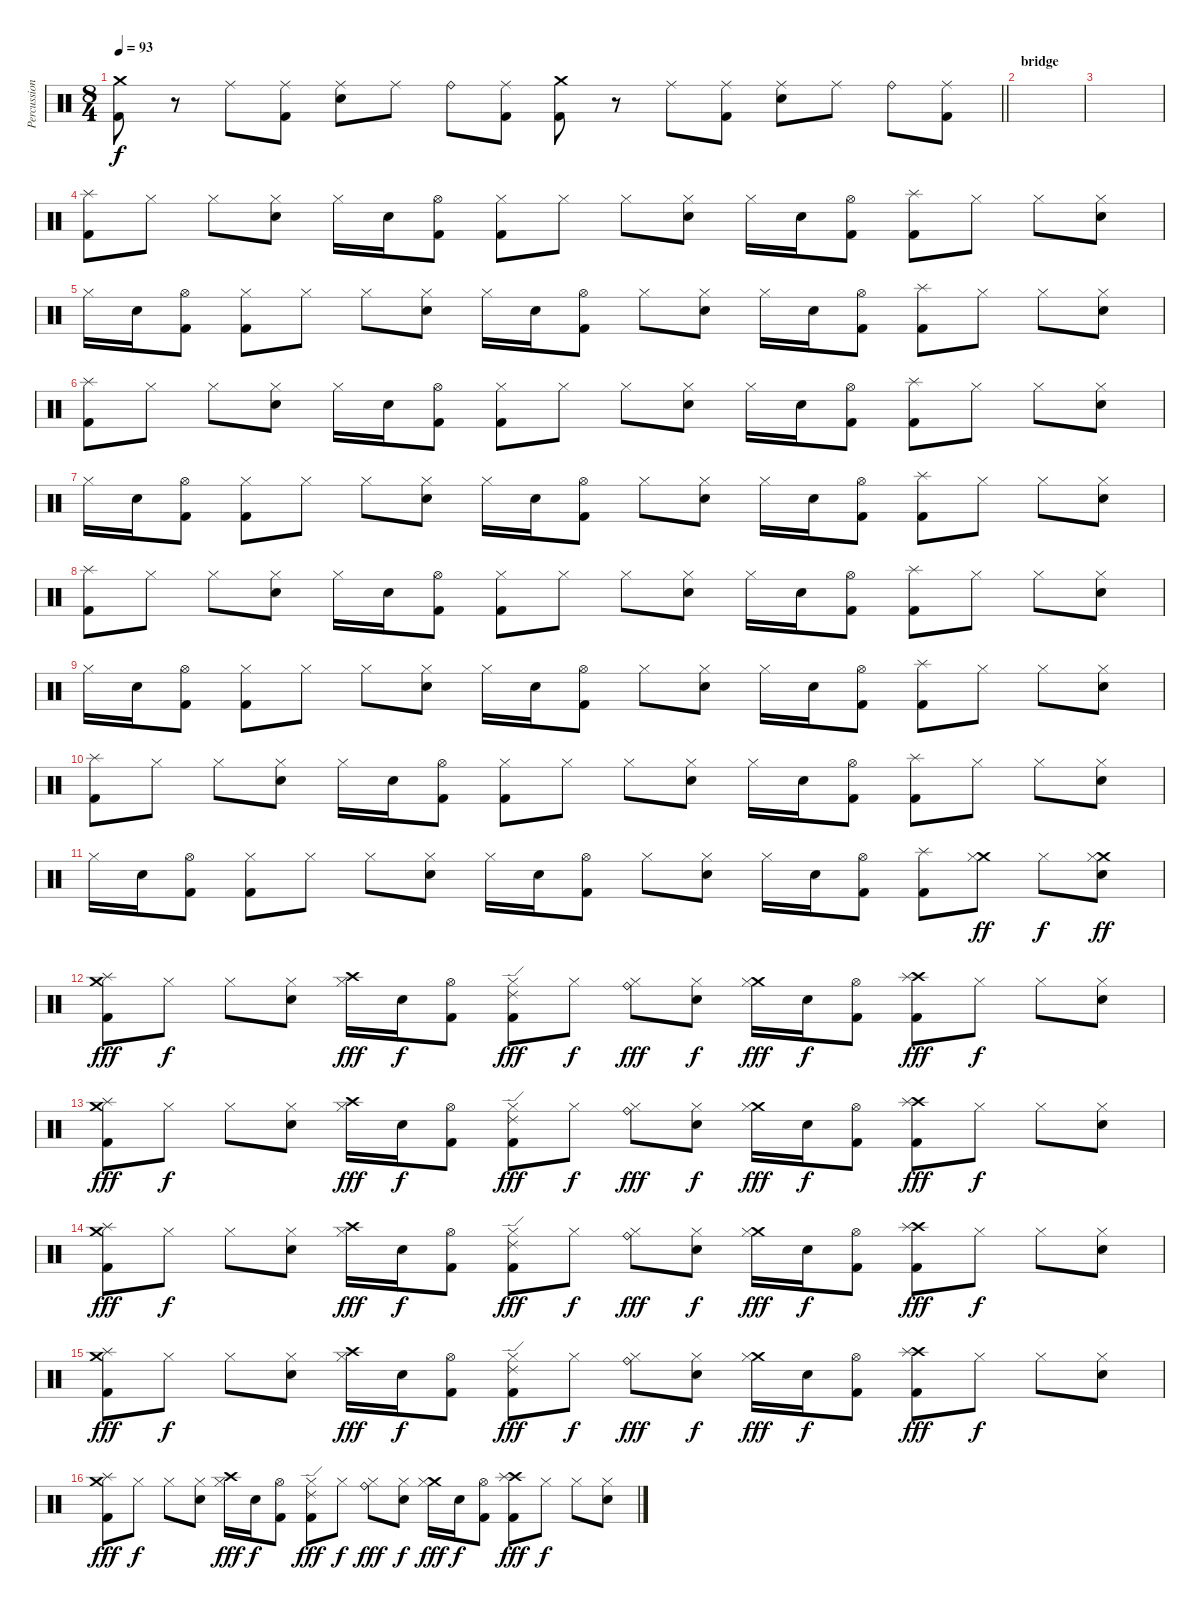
\track ("Percussioni" "Percussion") {instrument percussion}
\staff {score}
\articulation defaults
\ts (8 4)
\tempo 93
\clef neutral
\barLineRight lightlight
\ks c
("Kick (hit) 2" "Crash medium (hit)").8{dy f} r.8 "Ride (middle)".8 ("Kick (hit) 2" "Ride (middle)").8 ("Electric Snare (hit)" "Ride (middle)").8 "Ride (middle)".8 "Ride (bell)".8 ("Kick (hit) 2" "Ride (middle)").8 ("Kick (hit) 2" "Crash medium (hit)").8 r.8 "Ride (middle)".8 ("Kick (hit) 2" "Ride (middle)").8 ("Electric Snare (hit)" "Ride (middle)").8 "Ride (middle)".8 "Ride (bell)".8 ("Kick (hit) 2" "Ride (middle)").8 |
\section ("" "bridge")
|
|
("Splash (hit)" "Kick (hit) 2").8 "Hi-Hat (closed)".8 "Hi-Hat (closed)".8 ("Electric Snare (hit)" "Hi-Hat (closed)").8 "Hi-Hat (closed)".16 "Electric Snare (hit)".16 ("Kick (hit) 2" "Hi-Hat (open)").8 ("Kick (hit) 2" "Hi-Hat (closed)").8 "Hi-Hat (closed)".8 "Hi-Hat (closed)".8 ("Electric Snare (hit)" "Hi-Hat (closed)").8 "Hi-Hat (closed)".16 "Electric Snare (hit)".16 ("Kick (hit) 2" "Hi-Hat (open)").8 ("Splash (hit)" "Kick (hit) 2").8 "Hi-Hat (closed)".8 "Hi-Hat (closed)".8 ("Electric Snare (hit)" "Hi-Hat (closed)").8 |
"Hi-Hat (closed)".16 "Electric Snare (hit)".16 ("Kick (hit) 2" "Hi-Hat (open)").8 ("Kick (hit) 2" "Hi-Hat (closed)").8 "Hi-Hat (closed)".8 "Hi-Hat (closed)".8 ("Electric Snare (hit)" "Hi-Hat (closed)").8 "Hi-Hat (closed)".16 "Electric Snare (hit)".16 ("Kick (hit) 2" "Hi-Hat (open)").8 "Hi-Hat (closed)".8 ("Electric Snare (hit)" "Hi-Hat (closed)").8 "Hi-Hat (closed)".16 "Electric Snare (hit)".16 ("Kick (hit) 2" "Hi-Hat (open)").8 ("Splash (hit)" "Kick (hit) 2").8 "Hi-Hat (closed)".8 "Hi-Hat (closed)".8 ("Electric Snare (hit)" "Hi-Hat (closed)").8 |
("Splash (hit)" "Kick (hit) 2").8 "Hi-Hat (closed)".8 "Hi-Hat (closed)".8 ("Electric Snare (hit)" "Hi-Hat (closed)").8 "Hi-Hat (closed)".16 "Electric Snare (hit)".16 ("Kick (hit) 2" "Hi-Hat (open)").8 ("Kick (hit) 2" "Hi-Hat (closed)").8 "Hi-Hat (closed)".8 "Hi-Hat (closed)".8 ("Electric Snare (hit)" "Hi-Hat (closed)").8 "Hi-Hat (closed)".16 "Electric Snare (hit)".16 ("Kick (hit) 2" "Hi-Hat (open)").8 ("Splash (hit)" "Kick (hit) 2").8 "Hi-Hat (closed)".8 "Hi-Hat (closed)".8 ("Electric Snare (hit)" "Hi-Hat (closed)").8 |
"Hi-Hat (closed)".16 "Electric Snare (hit)".16 ("Kick (hit) 2" "Hi-Hat (open)").8 ("Kick (hit) 2" "Hi-Hat (closed)").8 "Hi-Hat (closed)".8 "Hi-Hat (closed)".8 ("Electric Snare (hit)" "Hi-Hat (closed)").8 "Hi-Hat (closed)".16 "Electric Snare (hit)".16 ("Kick (hit) 2" "Hi-Hat (open)").8 "Hi-Hat (closed)".8 ("Electric Snare (hit)" "Hi-Hat (closed)").8 "Hi-Hat (closed)".16 "Electric Snare (hit)".16 ("Kick (hit) 2" "Hi-Hat (open)").8 ("Splash (hit)" "Kick (hit) 2").8 "Hi-Hat (closed)".8 "Hi-Hat (closed)".8 ("Electric Snare (hit)" "Hi-Hat (closed)").8 |
("Splash (hit)" "Kick (hit) 2").8 "Hi-Hat (closed)".8 "Hi-Hat (closed)".8 ("Electric Snare (hit)" "Hi-Hat (closed)").8 "Hi-Hat (closed)".16 "Electric Snare (hit)".16 ("Kick (hit) 2" "Hi-Hat (open)").8 ("Kick (hit) 2" "Hi-Hat (closed)").8 "Hi-Hat (closed)".8 "Hi-Hat (closed)".8 ("Electric Snare (hit)" "Hi-Hat (closed)").8 "Hi-Hat (closed)".16 "Electric Snare (hit)".16 ("Kick (hit) 2" "Hi-Hat (open)").8 ("Splash (hit)" "Kick (hit) 2").8 "Hi-Hat (closed)".8 "Hi-Hat (closed)".8 ("Electric Snare (hit)" "Hi-Hat (closed)").8 |
"Hi-Hat (closed)".16 "Electric Snare (hit)".16 ("Kick (hit) 2" "Hi-Hat (open)").8 ("Kick (hit) 2" "Hi-Hat (closed)").8 "Hi-Hat (closed)".8 "Hi-Hat (closed)".8 ("Electric Snare (hit)" "Hi-Hat (closed)").8 "Hi-Hat (closed)".16 "Electric Snare (hit)".16 ("Kick (hit) 2" "Hi-Hat (open)").8 "Hi-Hat (closed)".8 ("Electric Snare (hit)" "Hi-Hat (closed)").8 "Hi-Hat (closed)".16 "Electric Snare (hit)".16 ("Kick (hit) 2" "Hi-Hat (open)").8 ("Splash (hit)" "Kick (hit) 2").8 "Hi-Hat (closed)".8 "Hi-Hat (closed)".8 ("Electric Snare (hit)" "Hi-Hat (closed)").8 |
("Splash (hit)" "Kick (hit) 2").8 "Hi-Hat (closed)".8 "Hi-Hat (closed)".8 ("Electric Snare (hit)" "Hi-Hat (closed)").8 "Hi-Hat (closed)".16 "Electric Snare (hit)".16 ("Kick (hit) 2" "Hi-Hat (open)").8 ("Kick (hit) 2" "Hi-Hat (closed)").8 "Hi-Hat (closed)".8 "Hi-Hat (closed)".8 ("Electric Snare (hit)" "Hi-Hat (closed)").8 "Hi-Hat (closed)".16 "Electric Snare (hit)".16 ("Kick (hit) 2" "Hi-Hat (open)").8 ("Splash (hit)" "Kick (hit) 2").8 "Hi-Hat (closed)".8 "Hi-Hat (closed)".8 ("Electric Snare (hit)" "Hi-Hat (closed)").8 |
"Hi-Hat (closed)".16 "Electric Snare (hit)".16 ("Kick (hit) 2" "Hi-Hat (open)").8 ("Kick (hit) 2" "Hi-Hat (closed)").8 "Hi-Hat (closed)".8 "Hi-Hat (closed)".8 ("Electric Snare (hit)" "Hi-Hat (closed)").8 "Hi-Hat (closed)".16 "Electric Snare (hit)".16 ("Kick (hit) 2" "Hi-Hat (open)").8 "Hi-Hat (closed)".8 ("Electric Snare (hit)" "Hi-Hat (closed)").8 "Hi-Hat (closed)".16 "Electric Snare (hit)".16 ("Kick (hit) 2" "Hi-Hat (open)").8 ("Splash (hit)" "Kick (hit) 2").8 ("Crash medium (hit)" "Hi-Hat (closed)").8{dy ff} "Hi-Hat (closed)".8{dy f} ("Crash medium (hit)" "Electric Snare (hit)" "Hi-Hat (closed)").8{dy ff} |
("Crash medium (hit)" "Splash (hit)" "Kick (hit) 2").8{dy fff} "Hi-Hat (closed)".8{dy f} "Hi-Hat (closed)".8 ("Electric Snare (hit)" "Hi-Hat (closed)").8 ("Crash high (hit)" "Hi-Hat (closed)").16{dy fff} "Electric Snare (hit)".16{dy f} ("Kick (hit) 2" "Hi-Hat (open)").8 ("Ride (edge) 2" "Kick (hit) 2" "Hi-Hat (closed)").8{dy fff} "Hi-Hat (closed)".8{dy f} ("Ride (bell)" "Hi-Hat (closed)").8{dy fff} ("Electric Snare (hit)" "Hi-Hat (closed)").8{dy f} ("Crash medium (hit)" "Hi-Hat (closed)").16{dy fff} "Electric Snare (hit)".16{dy f} ("Kick (hit) 2" "Hi-Hat (open)").8 ("Crash high (hit)" "Splash (hit)" "Kick (hit) 2").8{dy fff} "Hi-Hat (closed)".8{dy f} "Hi-Hat (closed)".8 ("Electric Snare (hit)" "Hi-Hat (closed)").8 |
("Crash medium (hit)" "Splash (hit)" "Kick (hit) 2").8{dy fff} "Hi-Hat (closed)".8{dy f} "Hi-Hat (closed)".8 ("Electric Snare (hit)" "Hi-Hat (closed)").8 ("Crash high (hit)" "Hi-Hat (closed)").16{dy fff} "Electric Snare (hit)".16{dy f} ("Kick (hit) 2" "Hi-Hat (open)").8 ("Ride (edge) 2" "Kick (hit) 2" "Hi-Hat (closed)").8{dy fff} "Hi-Hat (closed)".8{dy f} ("Ride (bell)" "Hi-Hat (closed)").8{dy fff} ("Electric Snare (hit)" "Hi-Hat (closed)").8{dy f} ("Crash medium (hit)" "Hi-Hat (closed)").16{dy fff} "Electric Snare (hit)".16{dy f} ("Kick (hit) 2" "Hi-Hat (open)").8 ("Crash high (hit)" "Splash (hit)" "Kick (hit) 2").8{dy fff} "Hi-Hat (closed)".8{dy f} "Hi-Hat (closed)".8 ("Electric Snare (hit)" "Hi-Hat (closed)").8 |
("Crash medium (hit)" "Splash (hit)" "Kick (hit) 2").8{dy fff} "Hi-Hat (closed)".8{dy f} "Hi-Hat (closed)".8 ("Electric Snare (hit)" "Hi-Hat (closed)").8 ("Crash high (hit)" "Hi-Hat (closed)").16{dy fff} "Electric Snare (hit)".16{dy f} ("Kick (hit) 2" "Hi-Hat (open)").8 ("Ride (edge) 2" "Kick (hit) 2" "Hi-Hat (closed)").8{dy fff} "Hi-Hat (closed)".8{dy f} ("Ride (bell)" "Hi-Hat (closed)").8{dy fff} ("Electric Snare (hit)" "Hi-Hat (closed)").8{dy f} ("Crash medium (hit)" "Hi-Hat (closed)").16{dy fff} "Electric Snare (hit)".16{dy f} ("Kick (hit) 2" "Hi-Hat (open)").8 ("Crash high (hit)" "Splash (hit)" "Kick (hit) 2").8{dy fff} "Hi-Hat (closed)".8{dy f} "Hi-Hat (closed)".8 ("Electric Snare (hit)" "Hi-Hat (closed)").8 |
("Crash medium (hit)" "Splash (hit)" "Kick (hit) 2").8{dy fff} "Hi-Hat (closed)".8{dy f} "Hi-Hat (closed)".8 ("Electric Snare (hit)" "Hi-Hat (closed)").8 ("Crash high (hit)" "Hi-Hat (closed)").16{dy fff} "Electric Snare (hit)".16{dy f} ("Kick (hit) 2" "Hi-Hat (open)").8 ("Ride (edge) 2" "Kick (hit) 2" "Hi-Hat (closed)").8{dy fff} "Hi-Hat (closed)".8{dy f} ("Ride (bell)" "Hi-Hat (closed)").8{dy fff} ("Electric Snare (hit)" "Hi-Hat (closed)").8{dy f} ("Crash medium (hit)" "Hi-Hat (closed)").16{dy fff} "Electric Snare (hit)".16{dy f} ("Kick (hit) 2" "Hi-Hat (open)").8 ("Crash high (hit)" "Splash (hit)" "Kick (hit) 2").8{dy fff} "Hi-Hat (closed)".8{dy f} "Hi-Hat (closed)".8 ("Electric Snare (hit)" "Hi-Hat (closed)").8 |
("Crash medium (hit)" "Splash (hit)" "Kick (hit) 2").8{dy fff} "Hi-Hat (closed)".8{dy f} "Hi-Hat (closed)".8 ("Electric Snare (hit)" "Hi-Hat (closed)").8 ("Crash high (hit)" "Hi-Hat (closed)").16{dy fff} "Electric Snare (hit)".16{dy f} ("Kick (hit) 2" "Hi-Hat (open)").8 ("Ride (edge) 2" "Kick (hit) 2" "Hi-Hat (closed)").8{dy fff} "Hi-Hat (closed)".8{dy f} ("Ride (bell)" "Hi-Hat (closed)").8{dy fff} ("Electric Snare (hit)" "Hi-Hat (closed)").8{dy f} ("Crash medium (hit)" "Hi-Hat (closed)").16{dy fff} "Electric Snare (hit)".16{dy f} ("Kick (hit) 2" "Hi-Hat (open)").8 ("Crash high (hit)" "Splash (hit)" "Kick (hit) 2").8{dy fff} "Hi-Hat (closed)".8{dy f} "Hi-Hat (closed)".8 ("Electric Snare (hit)" "Hi-Hat (closed)").8
